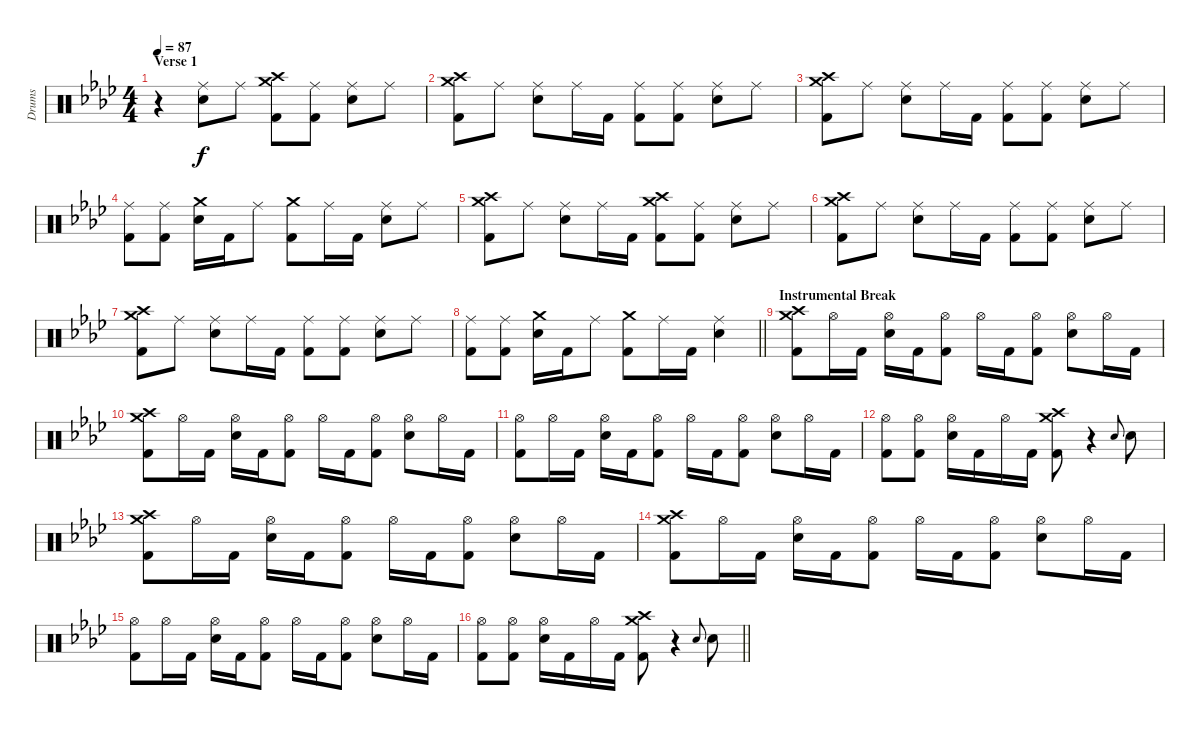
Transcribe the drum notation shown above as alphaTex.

\track ("Drums" "Drums") {instrument percussion}
\staff {score}
\articulation defaults
\ts (4 4)
\section ("" "Verse 1")
\tempo 87
\clef neutral
\ks fminor
r.4{dy f} ("Ride (middle)" "Electric Snare (hit)").8 "Ride (middle)".8 ("Crash medium (hit)" "Crash high (hit)" "Kick (hit) 2").8 ("Ride (middle)" "Kick (hit) 2").8 ("Ride (middle)" "Electric Snare (hit)").8 "Ride (middle)".8 |
("Crash medium (hit)" "Crash high (hit)" "Kick (hit) 2").8 "Ride (middle)".8 ("Ride (middle)" "Electric Snare (hit)").8 "Ride (middle)".16 "Kick (hit) 2".16 ("Ride (middle)" "Kick (hit) 2").8 ("Ride (middle)" "Kick (hit) 2").8 ("Ride (middle)" "Electric Snare (hit)").8 "Ride (middle)".8 |
("Crash medium (hit)" "Crash high (hit)" "Kick (hit) 2").8 "Ride (middle)".8 ("Ride (middle)" "Electric Snare (hit)").8 "Ride (middle)".16 "Kick (hit) 2".16 ("Ride (middle)" "Kick (hit) 2").8 ("Ride (middle)" "Kick (hit) 2").8 ("Ride (middle)" "Electric Snare (hit)").8 "Ride (middle)".8 |
("Ride (middle)" "Kick (hit) 2").8 ("Ride (middle)" "Kick (hit) 2").8 ("Crash medium (hit)" "Electric Snare (hit)").16 "Kick (hit) 2".16 "Ride (middle)".8 ("Crash medium (hit)" "Kick (hit) 2").8 "Ride (middle)".16 "Kick (hit) 2".16 ("Ride (middle)" "Electric Snare (hit)").8 "Ride (middle)".8 |
("Crash medium (hit)" "Crash high (hit)" "Kick (hit) 2").8 "Ride (middle)".8 ("Ride (middle)" "Electric Snare (hit)").8 "Ride (middle)".16 "Kick (hit) 2".16 ("Crash medium (hit)" "Crash high (hit)" "Kick (hit) 2").8 ("Ride (middle)" "Kick (hit) 2").8 ("Ride (middle)" "Electric Snare (hit)").8 "Ride (middle)".8 |
("Crash medium (hit)" "Crash high (hit)" "Kick (hit) 2").8 "Ride (middle)".8 ("Ride (middle)" "Electric Snare (hit)").8 "Ride (middle)".16 "Kick (hit) 2".16 ("Ride (middle)" "Kick (hit) 2").8 ("Ride (middle)" "Kick (hit) 2").8 ("Ride (middle)" "Electric Snare (hit)").8 "Ride (middle)".8 |
("Crash medium (hit)" "Crash high (hit)" "Kick (hit) 2").8 "Ride (middle)".8 ("Ride (middle)" "Electric Snare (hit)").8 "Ride (middle)".16 "Kick (hit) 2".16 ("Ride (middle)" "Kick (hit) 2").8 ("Ride (middle)" "Kick (hit) 2").8 ("Ride (middle)" "Electric Snare (hit)").8 "Ride (middle)".8 |
\barLineRight lightlight
("Ride (middle)" "Kick (hit) 2").8 ("Ride (middle)" "Kick (hit) 2").8 ("Crash medium (hit)" "Electric Snare (hit)").16 "Kick (hit) 2".16 "Ride (middle)".8 ("Crash medium (hit)" "Kick (hit) 2").8 "Ride (middle)".16 "Kick (hit) 2".16 ("Ride (middle)" "Electric Snare (hit)").4 |
\section ("" "Instrumental Break")
("Crash medium (hit)" "Crash high (hit)" "Kick (hit) 2").8 "Hi-Hat (open)".16 "Kick (hit) 2".16 ("Hi-Hat (open)" "Electric Snare (hit)").16 "Kick (hit) 2".16 ("Hi-Hat (open)" "Kick (hit) 2").8 "Hi-Hat (open)".16 "Kick (hit) 2".16 ("Hi-Hat (open)" "Kick (hit) 2").8 ("Hi-Hat (open)" "Electric Snare (hit)").8 "Hi-Hat (open)".16 "Kick (hit) 2".16 |
("Crash medium (hit)" "Crash high (hit)" "Kick (hit) 2").8 "Hi-Hat (open)".16 "Kick (hit) 2".16 ("Hi-Hat (open)" "Electric Snare (hit)").16 "Kick (hit) 2".16 ("Hi-Hat (open)" "Kick (hit) 2").8 "Hi-Hat (open)".16 "Kick (hit) 2".16 ("Hi-Hat (open)" "Kick (hit) 2").8 ("Hi-Hat (open)" "Electric Snare (hit)").8 "Hi-Hat (open)".16 "Kick (hit) 2".16 |
("Hi-Hat (open)" "Kick (hit) 2").8 "Hi-Hat (open)".16 "Kick (hit) 2".16 ("Hi-Hat (open)" "Electric Snare (hit)").16 "Kick (hit) 2".16 ("Hi-Hat (open)" "Kick (hit) 2").8 "Hi-Hat (open)".16 "Kick (hit) 2".16 ("Hi-Hat (open)" "Kick (hit) 2").8 ("Hi-Hat (open)" "Electric Snare (hit)").8 "Hi-Hat (open)".16 "Kick (hit) 2".16 |
("Hi-Hat (open)" "Kick (hit) 2").8 ("Hi-Hat (open)" "Kick (hit) 2").8 ("Hi-Hat (open)" "Electric Snare (hit)").16 "Kick (hit) 2".16 "Hi-Hat (open)".16 "Kick (hit) 2".16 ("Crash medium (hit)" "Crash high (hit)" "Kick (hit) 2").8 r.4 "Electric Snare (hit)".8{gr onbeat} "Electric Snare (hit)".8 |
("Crash medium (hit)" "Crash high (hit)" "Kick (hit) 2").8 "Hi-Hat (open)".16 "Kick (hit) 2".16 ("Hi-Hat (open)" "Electric Snare (hit)").16 "Kick (hit) 2".16 ("Hi-Hat (open)" "Kick (hit) 2").8 "Hi-Hat (open)".16 "Kick (hit) 2".16 ("Hi-Hat (open)" "Kick (hit) 2").8 ("Hi-Hat (open)" "Electric Snare (hit)").8 "Hi-Hat (open)".16 "Kick (hit) 2".16 |
("Crash medium (hit)" "Crash high (hit)" "Kick (hit) 2").8 "Hi-Hat (open)".16 "Kick (hit) 2".16 ("Hi-Hat (open)" "Electric Snare (hit)").16 "Kick (hit) 2".16 ("Hi-Hat (open)" "Kick (hit) 2").8 "Hi-Hat (open)".16 "Kick (hit) 2".16 ("Hi-Hat (open)" "Kick (hit) 2").8 ("Hi-Hat (open)" "Electric Snare (hit)").8 "Hi-Hat (open)".16 "Kick (hit) 2".16 |
("Hi-Hat (open)" "Kick (hit) 2").8 "Hi-Hat (open)".16 "Kick (hit) 2".16 ("Hi-Hat (open)" "Electric Snare (hit)").16 "Kick (hit) 2".16 ("Hi-Hat (open)" "Kick (hit) 2").8 "Hi-Hat (open)".16 "Kick (hit) 2".16 ("Hi-Hat (open)" "Kick (hit) 2").8 ("Hi-Hat (open)" "Electric Snare (hit)").8 "Hi-Hat (open)".16 "Kick (hit) 2".16 |
\barLineRight lightlight
("Hi-Hat (open)" "Kick (hit) 2").8 ("Hi-Hat (open)" "Kick (hit) 2").8 ("Hi-Hat (open)" "Electric Snare (hit)").16 "Kick (hit) 2".16 "Hi-Hat (open)".16 "Kick (hit) 2".16 ("Crash medium (hit)" "Crash high (hit)" "Kick (hit) 2").8 r.4 "Electric Snare (hit)".8{gr onbeat} "Electric Snare (hit)".8
